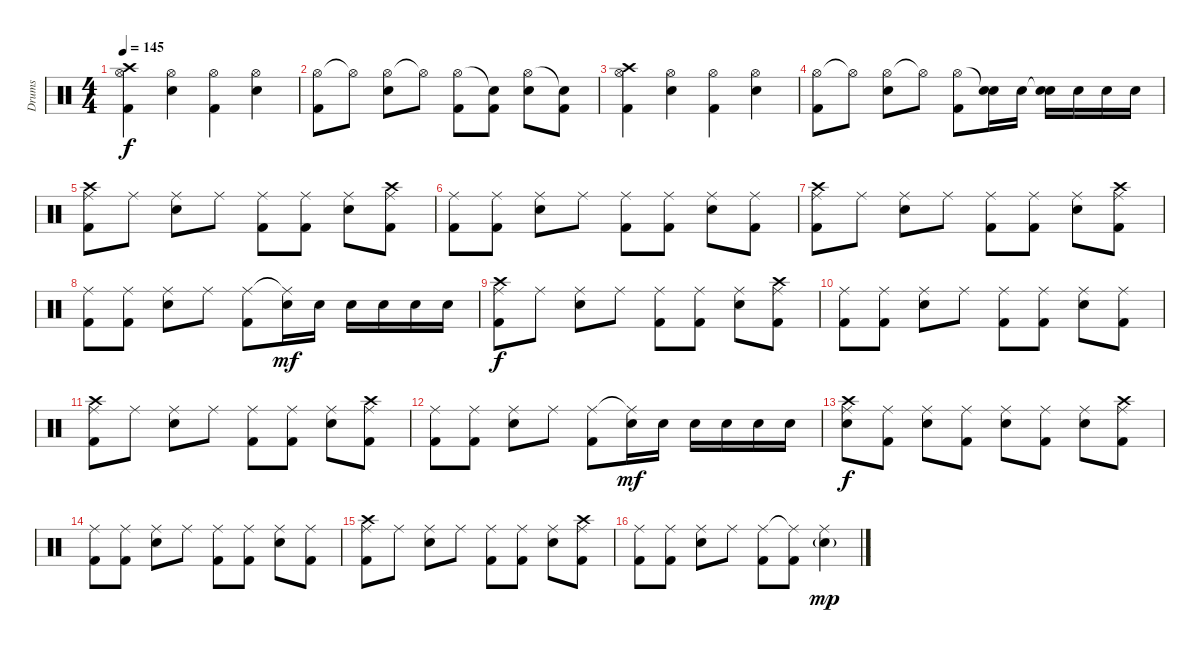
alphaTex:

\track ("Drums" "Drums") {instrument percussion}
\staff {score}
\articulation defaults
\ts (4 4)
\tempo 145
\clef neutral
\ks c
("Hi-Hat (open)" "Kick (hit) 2" "Crash high (hit)").4{dy f} ("Hi-Hat (open)" "Electric Snare (hit)").4 ("Hi-Hat (open)" "Kick (hit) 2").4 ("Hi-Hat (open)" "Electric Snare (hit)").4 |
("Hi-Hat (open)" "Kick (hit) 2").8 "Hi-Hat (open)"{t}.8 ("Hi-Hat (open)" "Electric Snare (hit)").8 "Hi-Hat (open)"{t}.8 ("Hi-Hat (open)" "Kick (hit) 2").8 ("Snare (hit)"{t} "Kick (hit) 2").8 ("Hi-Hat (open)" "Electric Snare (hit)").8 ("Snare (hit)"{t} "Kick (hit) 2").8 |
("Hi-Hat (open)" "Kick (hit) 2" "Crash high (hit)").4 ("Hi-Hat (open)" "Electric Snare (hit)").4 ("Hi-Hat (open)" "Kick (hit) 2").4 ("Hi-Hat (open)" "Electric Snare (hit)").4 |
("Hi-Hat (open)" "Kick (hit) 2").8 "Hi-Hat (open)"{t}.8 ("Hi-Hat (open)" "Electric Snare (hit)").8 "Hi-Hat (open)"{t}.8 ("Hi-Hat (open)" "Kick (hit) 2").8 ("Snare (hit)"{t} "Electric Snare (hit)").16 "Electric Snare (hit)".16 ("Snare (hit)"{t} "Electric Snare (hit)").16 "Electric Snare (hit)".16 "Electric Snare (hit)".16 "Electric Snare (hit)".16 |
("Ride (middle)" "Kick (hit) 2" "Crash high (hit)").8 "Ride (middle)".8 ("Ride (middle)" "Electric Snare (hit)").8 "Ride (middle)".8 ("Ride (middle)" "Kick (hit) 2").8 ("Ride (middle)" "Kick (hit) 2").8 ("Ride (middle)" "Electric Snare (hit)").8 ("Ride (middle)" "Kick (hit) 2" "Crash high (hit)").8 |
("Ride (middle)" "Kick (hit) 2").8 ("Ride (middle)" "Kick (hit) 2").8 ("Ride (middle)" "Electric Snare (hit)").8 "Ride (middle)".8 ("Ride (middle)" "Kick (hit) 2").8 ("Ride (middle)" "Kick (hit) 2").8 ("Ride (middle)" "Electric Snare (hit)").8 ("Ride (middle)" "Kick (hit) 2").8 |
("Ride (middle)" "Kick (hit) 2" "Crash high (hit)").8 "Ride (middle)".8 ("Ride (middle)" "Electric Snare (hit)").8 "Ride (middle)".8 ("Ride (middle)" "Kick (hit) 2").8 ("Ride (middle)" "Kick (hit) 2").8 ("Ride (middle)" "Electric Snare (hit)").8 ("Ride (middle)" "Kick (hit) 2" "Crash high (hit)").8 |
("Ride (middle)" "Kick (hit) 2").8 ("Ride (middle)" "Kick (hit) 2").8 ("Ride (middle)" "Electric Snare (hit)").8 "Ride (middle)".8 ("Ride (middle)" "Kick (hit) 2").8 ("Ride (middle)"{t} "Electric Snare (hit)").16{dy mf} "Electric Snare (hit)".16 "Electric Snare (hit)".16 "Electric Snare (hit)".16 "Electric Snare (hit)".16 "Electric Snare (hit)".16 |
("Ride (middle)" "Kick (hit) 2" "Crash high (hit)").8{dy f} "Ride (middle)".8 ("Ride (middle)" "Electric Snare (hit)").8 "Ride (middle)".8 ("Ride (middle)" "Kick (hit) 2").8 ("Ride (middle)" "Kick (hit) 2").8 ("Ride (middle)" "Electric Snare (hit)").8 ("Ride (middle)" "Kick (hit) 2" "Crash high (hit)").8 |
("Ride (middle)" "Kick (hit) 2").8 ("Ride (middle)" "Kick (hit) 2").8 ("Ride (middle)" "Electric Snare (hit)").8 "Ride (middle)".8 ("Ride (middle)" "Kick (hit) 2").8 ("Ride (middle)" "Kick (hit) 2").8 ("Ride (middle)" "Electric Snare (hit)").8 ("Ride (middle)" "Kick (hit) 2").8 |
("Ride (middle)" "Kick (hit) 2" "Crash high (hit)").8 "Ride (middle)".8 ("Ride (middle)" "Electric Snare (hit)").8 "Ride (middle)".8 ("Ride (middle)" "Kick (hit) 2").8 ("Ride (middle)" "Kick (hit) 2").8 ("Ride (middle)" "Electric Snare (hit)").8 ("Ride (middle)" "Kick (hit) 2" "Crash high (hit)").8 |
("Ride (middle)" "Kick (hit) 2").8 ("Ride (middle)" "Kick (hit) 2").8 ("Ride (middle)" "Electric Snare (hit)").8 "Ride (middle)".8 ("Ride (middle)" "Kick (hit) 2").8 ("Ride (middle)"{t} "Electric Snare (hit)").16{dy mf} "Electric Snare (hit)".16 "Electric Snare (hit)".16 "Electric Snare (hit)".16 "Electric Snare (hit)".16 "Electric Snare (hit)".16 |
("Ride (middle)" "Electric Snare (hit)" "Crash high (hit)").8{dy f} ("Ride (middle)" "Kick (hit) 2").8 ("Ride (middle)" "Electric Snare (hit)").8 ("Ride (middle)" "Kick (hit) 2").8 ("Ride (middle)" "Electric Snare (hit)").8 ("Ride (middle)" "Kick (hit) 2").8 ("Ride (middle)" "Electric Snare (hit)").8 ("Ride (middle)" "Kick (hit) 2" "Crash high (hit)").8 |
("Ride (middle)" "Kick (hit) 2").8 ("Ride (middle)" "Kick (hit) 2").8 ("Ride (middle)" "Electric Snare (hit)").8 "Ride (middle)".8 ("Ride (middle)" "Kick (hit) 2").8 ("Ride (middle)" "Kick (hit) 2").8 ("Ride (middle)" "Electric Snare (hit)").8 ("Ride (middle)" "Kick (hit) 2").8 |
("Ride (middle)" "Kick (hit) 2" "Crash high (hit)").8 "Ride (middle)".8 ("Ride (middle)" "Electric Snare (hit)").8 "Ride (middle)".8 ("Ride (middle)" "Kick (hit) 2").8 ("Ride (middle)" "Kick (hit) 2").8 ("Ride (middle)" "Electric Snare (hit)").8 ("Ride (middle)" "Kick (hit) 2" "Crash high (hit)").8 |
("Ride (middle)" "Kick (hit) 2").8 ("Ride (middle)" "Kick (hit) 2").8 ("Ride (middle)" "Electric Snare (hit)").8 "Ride (middle)".8 ("Ride (middle)" "Kick (hit) 2").8 ("Ride (middle)"{t} "Kick (hit) 2").8 ("Electric Snare (hit)"{g} "Ride (middle)").4{dy mp}
